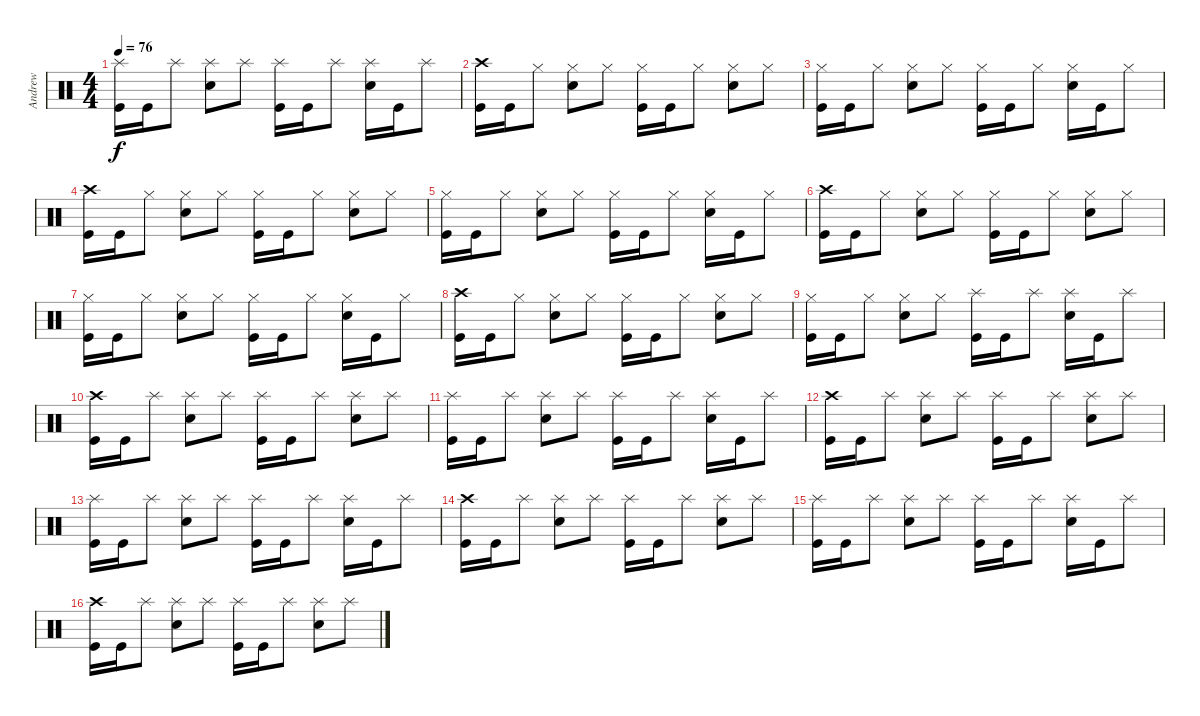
\track ("Andrew" "Andrew") {instrument percussion}
\staff {score}
\articulation defaults
\ts (4 4)
\tempo 76
\clef neutral
\ks c
("Splash (hit)" "Kick (hit)").16{dy f} "Kick (hit)".16 "Splash (hit)".8 ("Splash (hit)" "Snare (hit) 2").8 "Splash (hit)".8 ("Splash (hit)" "Kick (hit)").16 "Kick (hit)".16 "Splash (hit)".8 ("Splash (hit)" "Snare (hit) 2").16 "Kick (hit)".16 "Splash (hit)".8 |
("Crash high (hit)" "Kick (hit)").16 "Kick (hit)".16 "Hi-Hat (closed)".8 ("Hi-Hat (closed)" "Snare (hit) 2").8 "Hi-Hat (closed)".8 ("Hi-Hat (closed)" "Kick (hit)").16 "Kick (hit)".16 "Hi-Hat (closed)".8 ("Hi-Hat (closed)" "Snare (hit) 2").8 "Hi-Hat (closed)".8 |
("Hi-Hat (closed)" "Kick (hit)").16 "Kick (hit)".16 "Hi-Hat (closed)".8 ("Hi-Hat (closed)" "Snare (hit) 2").8 "Hi-Hat (closed)".8 ("Hi-Hat (closed)" "Kick (hit)").16 "Kick (hit)".16 "Hi-Hat (closed)".8 ("Hi-Hat (closed)" "Snare (hit) 2").16 "Kick (hit)".16 "Hi-Hat (closed)".8 |
("Crash high (hit)" "Kick (hit)").16 "Kick (hit)".16 "Hi-Hat (closed)".8 ("Hi-Hat (closed)" "Snare (hit) 2").8 "Hi-Hat (closed)".8 ("Hi-Hat (closed)" "Kick (hit)").16 "Kick (hit)".16 "Hi-Hat (closed)".8 ("Hi-Hat (closed)" "Snare (hit) 2").8 "Hi-Hat (closed)".8 |
("Hi-Hat (closed)" "Kick (hit)").16 "Kick (hit)".16 "Hi-Hat (closed)".8 ("Hi-Hat (closed)" "Snare (hit) 2").8 "Hi-Hat (closed)".8 ("Hi-Hat (closed)" "Kick (hit)").16 "Kick (hit)".16 "Hi-Hat (closed)".8 ("Hi-Hat (closed)" "Snare (hit) 2").16 "Kick (hit)".16 "Hi-Hat (closed)".8 |
("Crash high (hit)" "Kick (hit)").16 "Kick (hit)".16 "Hi-Hat (closed)".8 ("Hi-Hat (closed)" "Snare (hit) 2").8 "Hi-Hat (closed)".8 ("Hi-Hat (closed)" "Kick (hit)").16 "Kick (hit)".16 "Hi-Hat (closed)".8 ("Hi-Hat (closed)" "Snare (hit) 2").8 "Hi-Hat (closed)".8 |
("Hi-Hat (closed)" "Kick (hit)").16 "Kick (hit)".16 "Hi-Hat (closed)".8 ("Hi-Hat (closed)" "Snare (hit) 2").8 "Hi-Hat (closed)".8 ("Hi-Hat (closed)" "Kick (hit)").16 "Kick (hit)".16 "Hi-Hat (closed)".8 ("Hi-Hat (closed)" "Snare (hit) 2").16 "Kick (hit)".16 "Hi-Hat (closed)".8 |
("Crash high (hit)" "Kick (hit)").16 "Kick (hit)".16 "Hi-Hat (closed)".8 ("Hi-Hat (closed)" "Snare (hit) 2").8 "Hi-Hat (closed)".8 ("Hi-Hat (closed)" "Kick (hit)").16 "Kick (hit)".16 "Hi-Hat (closed)".8 ("Hi-Hat (closed)" "Snare (hit) 2").8 "Hi-Hat (closed)".8 |
("Hi-Hat (closed)" "Kick (hit)").16 "Kick (hit)".16 "Hi-Hat (closed)".8 ("Hi-Hat (closed)" "Snare (hit) 2").8 "Hi-Hat (closed)".8 ("Splash (hit)" "Kick (hit)").16 "Kick (hit)".16 "Splash (hit)".8 ("Splash (hit)" "Snare (hit) 2").16 "Kick (hit)".16 "Splash (hit)".8 |
("Crash high (hit)" "Kick (hit)").16 "Kick (hit)".16 "Splash (hit)".8 ("Splash (hit)" "Snare (hit) 2").8 "Splash (hit)".8 ("Splash (hit)" "Kick (hit)").16 "Kick (hit)".16 "Splash (hit)".8 ("Splash (hit)" "Snare (hit) 2").8 "Splash (hit)".8 |
("Splash (hit)" "Kick (hit)").16 "Kick (hit)".16 "Splash (hit)".8 ("Splash (hit)" "Snare (hit) 2").8 "Splash (hit)".8 ("Splash (hit)" "Kick (hit)").16 "Kick (hit)".16 "Splash (hit)".8 ("Splash (hit)" "Snare (hit) 2").16 "Kick (hit)".16 "Splash (hit)".8 |
("Crash high (hit)" "Kick (hit)").16 "Kick (hit)".16 "Splash (hit)".8 ("Splash (hit)" "Snare (hit) 2").8 "Splash (hit)".8 ("Splash (hit)" "Kick (hit)").16 "Kick (hit)".16 "Splash (hit)".8 ("Splash (hit)" "Snare (hit) 2").8 "Splash (hit)".8 |
("Splash (hit)" "Kick (hit)").16 "Kick (hit)".16 "Splash (hit)".8 ("Splash (hit)" "Snare (hit) 2").8 "Splash (hit)".8 ("Splash (hit)" "Kick (hit)").16 "Kick (hit)".16 "Splash (hit)".8 ("Splash (hit)" "Snare (hit) 2").16 "Kick (hit)".16 "Splash (hit)".8 |
("Crash high (hit)" "Kick (hit)").16 "Kick (hit)".16 "Splash (hit)".8 ("Splash (hit)" "Snare (hit) 2").8 "Splash (hit)".8 ("Splash (hit)" "Kick (hit)").16 "Kick (hit)".16 "Splash (hit)".8 ("Splash (hit)" "Snare (hit) 2").8 "Splash (hit)".8 |
("Splash (hit)" "Kick (hit)").16 "Kick (hit)".16 "Splash (hit)".8 ("Splash (hit)" "Snare (hit) 2").8 "Splash (hit)".8 ("Splash (hit)" "Kick (hit)").16 "Kick (hit)".16 "Splash (hit)".8 ("Splash (hit)" "Snare (hit) 2").16 "Kick (hit)".16 "Splash (hit)".8 |
("Crash high (hit)" "Kick (hit)").16 "Kick (hit)".16 "Splash (hit)".8 ("Splash (hit)" "Snare (hit) 2").8 "Splash (hit)".8 ("Splash (hit)" "Kick (hit)").16 "Kick (hit)".16 "Splash (hit)".8 ("Splash (hit)" "Snare (hit) 2").8 "Splash (hit)".8
